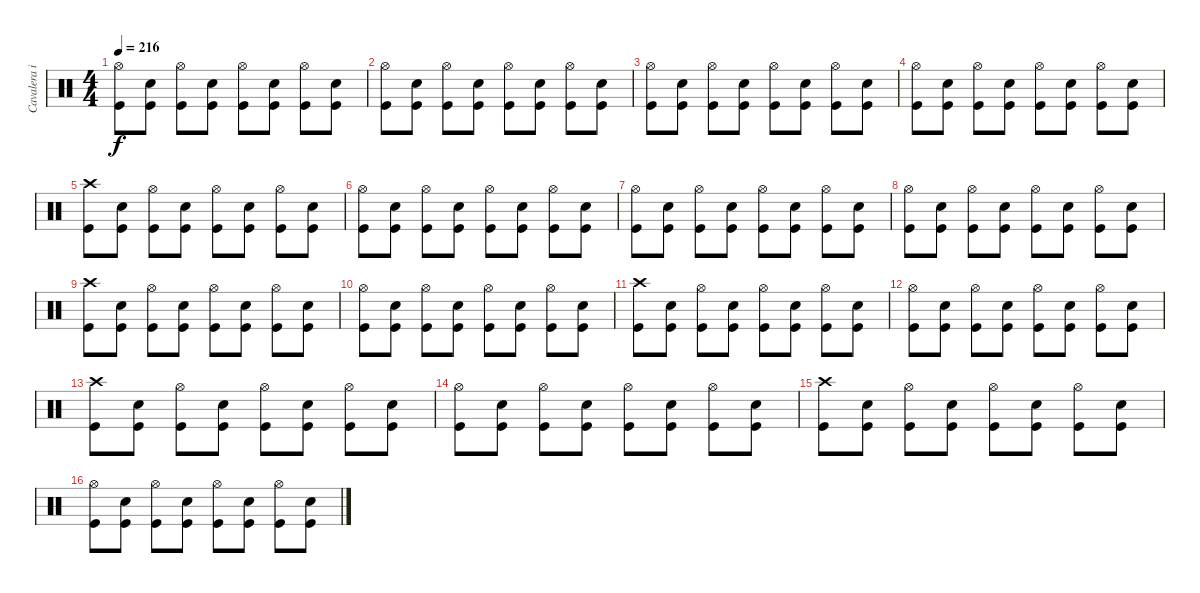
\track ("Cavalera igor" "Cavalera i") {instrument percussion}
\staff {score}
\articulation defaults
\ts (4 4)
\tempo 216
\clef neutral
\ks c
("Hi-Hat (open)" "Kick (hit)").8{dy f} ("Electric Snare (hit)" "Kick (hit)").8 ("Hi-Hat (open)" "Kick (hit)").8 ("Electric Snare (hit)" "Kick (hit)").8 ("Hi-Hat (open)" "Kick (hit)").8 ("Electric Snare (hit)" "Kick (hit)").8 ("Hi-Hat (open)" "Kick (hit)").8 ("Electric Snare (hit)" "Kick (hit)").8 |
("Hi-Hat (open)" "Kick (hit)").8 ("Electric Snare (hit)" "Kick (hit)").8 ("Hi-Hat (open)" "Kick (hit)").8 ("Electric Snare (hit)" "Kick (hit)").8 ("Hi-Hat (open)" "Kick (hit)").8 ("Electric Snare (hit)" "Kick (hit)").8 ("Hi-Hat (open)" "Kick (hit)").8 ("Electric Snare (hit)" "Kick (hit)").8 |
("Hi-Hat (open)" "Kick (hit)").8 ("Electric Snare (hit)" "Kick (hit)").8 ("Hi-Hat (open)" "Kick (hit)").8 ("Electric Snare (hit)" "Kick (hit)").8 ("Hi-Hat (open)" "Kick (hit)").8 ("Electric Snare (hit)" "Kick (hit)").8 ("Hi-Hat (open)" "Kick (hit)").8 ("Electric Snare (hit)" "Kick (hit)").8 |
("Hi-Hat (open)" "Kick (hit)").8 ("Electric Snare (hit)" "Kick (hit)").8 ("Hi-Hat (open)" "Kick (hit)").8 ("Electric Snare (hit)" "Kick (hit)").8 ("Hi-Hat (open)" "Kick (hit)").8 ("Electric Snare (hit)" "Kick (hit)").8 ("Hi-Hat (open)" "Kick (hit)").8 ("Electric Snare (hit)" "Kick (hit)").8 |
("Crash high (hit)" "Kick (hit)").8 ("Electric Snare (hit)" "Kick (hit)").8 ("Hi-Hat (open)" "Kick (hit)").8 ("Electric Snare (hit)" "Kick (hit)").8 ("Hi-Hat (open)" "Kick (hit)").8 ("Electric Snare (hit)" "Kick (hit)").8 ("Hi-Hat (open)" "Kick (hit)").8 ("Electric Snare (hit)" "Kick (hit)").8 |
("Hi-Hat (open)" "Kick (hit)").8 ("Electric Snare (hit)" "Kick (hit)").8 ("Hi-Hat (open)" "Kick (hit)").8 ("Electric Snare (hit)" "Kick (hit)").8 ("Hi-Hat (open)" "Kick (hit)").8 ("Electric Snare (hit)" "Kick (hit)").8 ("Hi-Hat (open)" "Kick (hit)").8 ("Electric Snare (hit)" "Kick (hit)").8 |
("Hi-Hat (open)" "Kick (hit)").8 ("Electric Snare (hit)" "Kick (hit)").8 ("Hi-Hat (open)" "Kick (hit)").8 ("Electric Snare (hit)" "Kick (hit)").8 ("Hi-Hat (open)" "Kick (hit)").8 ("Electric Snare (hit)" "Kick (hit)").8 ("Hi-Hat (open)" "Kick (hit)").8 ("Electric Snare (hit)" "Kick (hit)").8 |
("Hi-Hat (open)" "Kick (hit)").8 ("Electric Snare (hit)" "Kick (hit)").8 ("Hi-Hat (open)" "Kick (hit)").8 ("Electric Snare (hit)" "Kick (hit)").8 ("Hi-Hat (open)" "Kick (hit)").8 ("Electric Snare (hit)" "Kick (hit)").8 ("Hi-Hat (open)" "Kick (hit)").8 ("Electric Snare (hit)" "Kick (hit)").8 |
("Crash high (hit)" "Kick (hit)").8 ("Electric Snare (hit)" "Kick (hit)").8 ("Hi-Hat (open)" "Kick (hit)").8 ("Electric Snare (hit)" "Kick (hit)").8 ("Hi-Hat (open)" "Kick (hit)").8 ("Electric Snare (hit)" "Kick (hit)").8 ("Hi-Hat (open)" "Kick (hit)").8 ("Electric Snare (hit)" "Kick (hit)").8 |
("Hi-Hat (open)" "Kick (hit)").8 ("Electric Snare (hit)" "Kick (hit)").8 ("Hi-Hat (open)" "Kick (hit)").8 ("Electric Snare (hit)" "Kick (hit)").8 ("Hi-Hat (open)" "Kick (hit)").8 ("Electric Snare (hit)" "Kick (hit)").8 ("Hi-Hat (open)" "Kick (hit)").8 ("Electric Snare (hit)" "Kick (hit)").8 |
("Crash high (hit)" "Kick (hit)").8 ("Electric Snare (hit)" "Kick (hit)").8 ("Hi-Hat (open)" "Kick (hit)").8 ("Electric Snare (hit)" "Kick (hit)").8 ("Hi-Hat (open)" "Kick (hit)").8 ("Electric Snare (hit)" "Kick (hit)").8 ("Hi-Hat (open)" "Kick (hit)").8 ("Electric Snare (hit)" "Kick (hit)").8 |
("Hi-Hat (open)" "Kick (hit)").8 ("Electric Snare (hit)" "Kick (hit)").8 ("Hi-Hat (open)" "Kick (hit)").8 ("Electric Snare (hit)" "Kick (hit)").8 ("Hi-Hat (open)" "Kick (hit)").8 ("Electric Snare (hit)" "Kick (hit)").8 ("Hi-Hat (open)" "Kick (hit)").8 ("Electric Snare (hit)" "Kick (hit)").8 |
("Crash high (hit)" "Kick (hit)").8 ("Electric Snare (hit)" "Kick (hit)").8 ("Hi-Hat (open)" "Kick (hit)").8 ("Electric Snare (hit)" "Kick (hit)").8 ("Hi-Hat (open)" "Kick (hit)").8 ("Electric Snare (hit)" "Kick (hit)").8 ("Hi-Hat (open)" "Kick (hit)").8 ("Electric Snare (hit)" "Kick (hit)").8 |
("Hi-Hat (open)" "Kick (hit)").8 ("Electric Snare (hit)" "Kick (hit)").8 ("Hi-Hat (open)" "Kick (hit)").8 ("Electric Snare (hit)" "Kick (hit)").8 ("Hi-Hat (open)" "Kick (hit)").8 ("Electric Snare (hit)" "Kick (hit)").8 ("Hi-Hat (open)" "Kick (hit)").8 ("Electric Snare (hit)" "Kick (hit)").8 |
("Crash high (hit)" "Kick (hit)").8 ("Electric Snare (hit)" "Kick (hit)").8 ("Hi-Hat (open)" "Kick (hit)").8 ("Electric Snare (hit)" "Kick (hit)").8 ("Hi-Hat (open)" "Kick (hit)").8 ("Electric Snare (hit)" "Kick (hit)").8 ("Hi-Hat (open)" "Kick (hit)").8 ("Electric Snare (hit)" "Kick (hit)").8 |
("Hi-Hat (open)" "Kick (hit)").8 ("Electric Snare (hit)" "Kick (hit)").8 ("Hi-Hat (open)" "Kick (hit)").8 ("Electric Snare (hit)" "Kick (hit)").8 ("Hi-Hat (open)" "Kick (hit)").8 ("Electric Snare (hit)" "Kick (hit)").8 ("Hi-Hat (open)" "Kick (hit)").8 ("Electric Snare (hit)" "Kick (hit)").8
